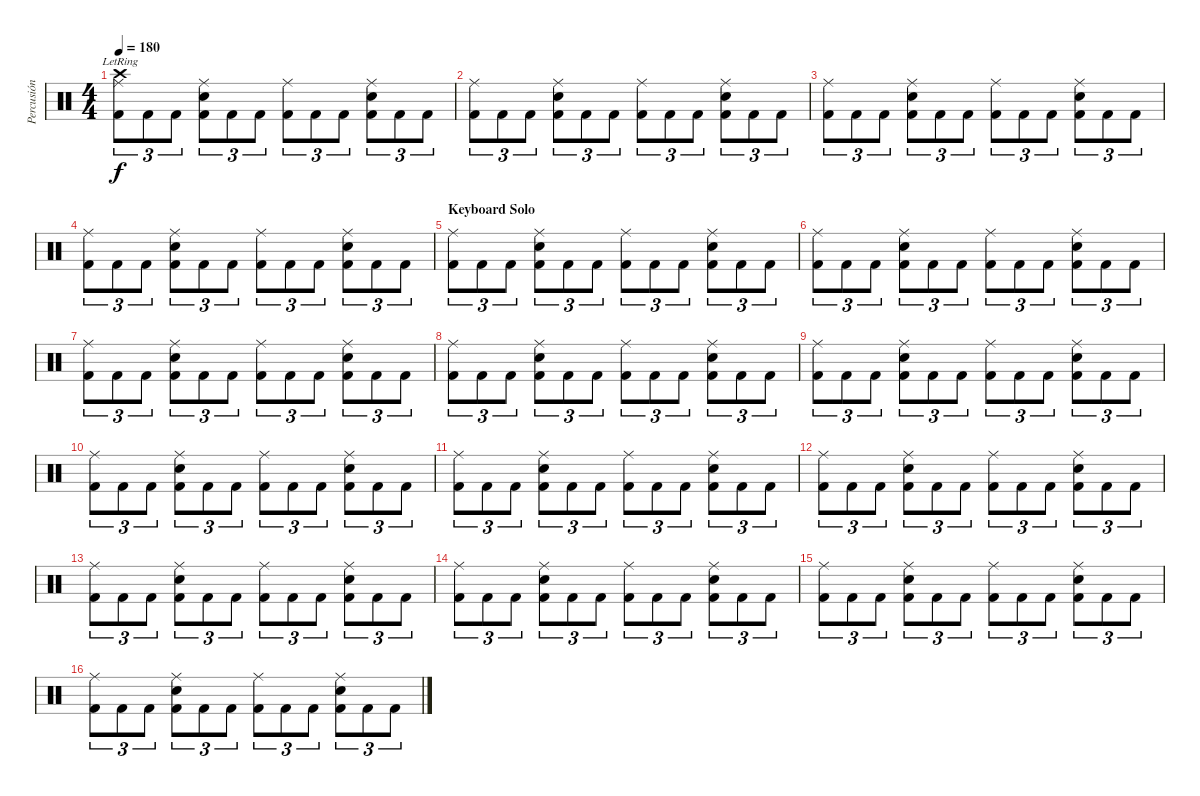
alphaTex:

\track ("Percusión" "Percusión") {instrument percussion}
\staff {score}
\articulation defaults
\ts (4 4)
\tempo 180
\clef neutral
\ks c
("Crash high (hit)"{lr} "Ride (middle)" "Kick (hit) 2").8{tu (3 2) dy f} "Kick (hit) 2".8{tu (3 2)} "Kick (hit) 2".8{tu (3 2)} ("Ride (middle)" "Snare (hit) 2" "Kick (hit) 2").8{tu (3 2)} "Kick (hit) 2".8{tu (3 2)} "Kick (hit) 2".8{tu (3 2)} ("Ride (middle)" "Kick (hit) 2").8{tu (3 2)} "Kick (hit) 2".8{tu (3 2)} "Kick (hit) 2".8{tu (3 2)} ("Ride (middle)" "Snare (hit) 2" "Kick (hit) 2").8{tu (3 2)} "Kick (hit) 2".8{tu (3 2)} "Kick (hit) 2".8{tu (3 2)} |
("Ride (middle)" "Kick (hit) 2").8{tu (3 2)} "Kick (hit) 2".8{tu (3 2)} "Kick (hit) 2".8{tu (3 2)} ("Ride (middle)" "Snare (hit) 2" "Kick (hit) 2").8{tu (3 2)} "Kick (hit) 2".8{tu (3 2)} "Kick (hit) 2".8{tu (3 2)} ("Ride (middle)" "Kick (hit) 2").8{tu (3 2)} "Kick (hit) 2".8{tu (3 2)} "Kick (hit) 2".8{tu (3 2)} ("Ride (middle)" "Snare (hit) 2" "Kick (hit) 2").8{tu (3 2)} "Kick (hit) 2".8{tu (3 2)} "Kick (hit) 2".8{tu (3 2)} |
("Ride (middle)" "Kick (hit) 2").8{tu (3 2)} "Kick (hit) 2".8{tu (3 2)} "Kick (hit) 2".8{tu (3 2)} ("Ride (middle)" "Snare (hit) 2" "Kick (hit) 2").8{tu (3 2)} "Kick (hit) 2".8{tu (3 2)} "Kick (hit) 2".8{tu (3 2)} ("Ride (middle)" "Kick (hit) 2").8{tu (3 2)} "Kick (hit) 2".8{tu (3 2)} "Kick (hit) 2".8{tu (3 2)} ("Ride (middle)" "Snare (hit) 2" "Kick (hit) 2").8{tu (3 2)} "Kick (hit) 2".8{tu (3 2)} "Kick (hit) 2".8{tu (3 2)} |
("Ride (middle)" "Kick (hit) 2").8{tu (3 2)} "Kick (hit) 2".8{tu (3 2)} "Kick (hit) 2".8{tu (3 2)} ("Ride (middle)" "Snare (hit) 2" "Kick (hit) 2").8{tu (3 2)} "Kick (hit) 2".8{tu (3 2)} "Kick (hit) 2".8{tu (3 2)} ("Ride (middle)" "Kick (hit) 2").8{tu (3 2)} "Kick (hit) 2".8{tu (3 2)} "Kick (hit) 2".8{tu (3 2)} ("Ride (middle)" "Snare (hit) 2" "Kick (hit) 2").8{tu (3 2)} "Kick (hit) 2".8{tu (3 2)} "Kick (hit) 2".8{tu (3 2)} |
\section ("" "Keyboard Solo")
("Ride (middle)" "Kick (hit) 2").8{tu (3 2)} "Kick (hit) 2".8{tu (3 2)} "Kick (hit) 2".8{tu (3 2)} ("Ride (middle)" "Snare (hit) 2" "Kick (hit) 2").8{tu (3 2)} "Kick (hit) 2".8{tu (3 2)} "Kick (hit) 2".8{tu (3 2)} ("Ride (middle)" "Kick (hit) 2").8{tu (3 2)} "Kick (hit) 2".8{tu (3 2)} "Kick (hit) 2".8{tu (3 2)} ("Ride (middle)" "Snare (hit) 2" "Kick (hit) 2").8{tu (3 2)} "Kick (hit) 2".8{tu (3 2)} "Kick (hit) 2".8{tu (3 2)} |
("Ride (middle)" "Kick (hit) 2").8{tu (3 2)} "Kick (hit) 2".8{tu (3 2)} "Kick (hit) 2".8{tu (3 2)} ("Ride (middle)" "Snare (hit) 2" "Kick (hit) 2").8{tu (3 2)} "Kick (hit) 2".8{tu (3 2)} "Kick (hit) 2".8{tu (3 2)} ("Ride (middle)" "Kick (hit) 2").8{tu (3 2)} "Kick (hit) 2".8{tu (3 2)} "Kick (hit) 2".8{tu (3 2)} ("Ride (middle)" "Snare (hit) 2" "Kick (hit) 2").8{tu (3 2)} "Kick (hit) 2".8{tu (3 2)} "Kick (hit) 2".8{tu (3 2)} |
("Ride (middle)" "Kick (hit) 2").8{tu (3 2)} "Kick (hit) 2".8{tu (3 2)} "Kick (hit) 2".8{tu (3 2)} ("Ride (middle)" "Snare (hit) 2" "Kick (hit) 2").8{tu (3 2)} "Kick (hit) 2".8{tu (3 2)} "Kick (hit) 2".8{tu (3 2)} ("Ride (middle)" "Kick (hit) 2").8{tu (3 2)} "Kick (hit) 2".8{tu (3 2)} "Kick (hit) 2".8{tu (3 2)} ("Ride (middle)" "Snare (hit) 2" "Kick (hit) 2").8{tu (3 2)} "Kick (hit) 2".8{tu (3 2)} "Kick (hit) 2".8{tu (3 2)} |
("Ride (middle)" "Kick (hit) 2").8{tu (3 2)} "Kick (hit) 2".8{tu (3 2)} "Kick (hit) 2".8{tu (3 2)} ("Ride (middle)" "Snare (hit) 2" "Kick (hit) 2").8{tu (3 2)} "Kick (hit) 2".8{tu (3 2)} "Kick (hit) 2".8{tu (3 2)} ("Ride (middle)" "Kick (hit) 2").8{tu (3 2)} "Kick (hit) 2".8{tu (3 2)} "Kick (hit) 2".8{tu (3 2)} ("Ride (middle)" "Snare (hit) 2" "Kick (hit) 2").8{tu (3 2)} "Kick (hit) 2".8{tu (3 2)} "Kick (hit) 2".8{tu (3 2)} |
("Ride (middle)" "Kick (hit) 2").8{tu (3 2)} "Kick (hit) 2".8{tu (3 2)} "Kick (hit) 2".8{tu (3 2)} ("Ride (middle)" "Snare (hit) 2" "Kick (hit) 2").8{tu (3 2)} "Kick (hit) 2".8{tu (3 2)} "Kick (hit) 2".8{tu (3 2)} ("Ride (middle)" "Kick (hit) 2").8{tu (3 2)} "Kick (hit) 2".8{tu (3 2)} "Kick (hit) 2".8{tu (3 2)} ("Ride (middle)" "Snare (hit) 2" "Kick (hit) 2").8{tu (3 2)} "Kick (hit) 2".8{tu (3 2)} "Kick (hit) 2".8{tu (3 2)} |
("Ride (middle)" "Kick (hit) 2").8{tu (3 2)} "Kick (hit) 2".8{tu (3 2)} "Kick (hit) 2".8{tu (3 2)} ("Ride (middle)" "Snare (hit) 2" "Kick (hit) 2").8{tu (3 2)} "Kick (hit) 2".8{tu (3 2)} "Kick (hit) 2".8{tu (3 2)} ("Ride (middle)" "Kick (hit) 2").8{tu (3 2)} "Kick (hit) 2".8{tu (3 2)} "Kick (hit) 2".8{tu (3 2)} ("Ride (middle)" "Snare (hit) 2" "Kick (hit) 2").8{tu (3 2)} "Kick (hit) 2".8{tu (3 2)} "Kick (hit) 2".8{tu (3 2)} |
("Ride (middle)" "Kick (hit) 2").8{tu (3 2)} "Kick (hit) 2".8{tu (3 2)} "Kick (hit) 2".8{tu (3 2)} ("Ride (middle)" "Snare (hit) 2" "Kick (hit) 2").8{tu (3 2)} "Kick (hit) 2".8{tu (3 2)} "Kick (hit) 2".8{tu (3 2)} ("Ride (middle)" "Kick (hit) 2").8{tu (3 2)} "Kick (hit) 2".8{tu (3 2)} "Kick (hit) 2".8{tu (3 2)} ("Ride (middle)" "Snare (hit) 2" "Kick (hit) 2").8{tu (3 2)} "Kick (hit) 2".8{tu (3 2)} "Kick (hit) 2".8{tu (3 2)} |
("Ride (middle)" "Kick (hit) 2").8{tu (3 2)} "Kick (hit) 2".8{tu (3 2)} "Kick (hit) 2".8{tu (3 2)} ("Ride (middle)" "Snare (hit) 2" "Kick (hit) 2").8{tu (3 2)} "Kick (hit) 2".8{tu (3 2)} "Kick (hit) 2".8{tu (3 2)} ("Ride (middle)" "Kick (hit) 2").8{tu (3 2)} "Kick (hit) 2".8{tu (3 2)} "Kick (hit) 2".8{tu (3 2)} ("Ride (middle)" "Snare (hit) 2" "Kick (hit) 2").8{tu (3 2)} "Kick (hit) 2".8{tu (3 2)} "Kick (hit) 2".8{tu (3 2)} |
("Ride (middle)" "Kick (hit) 2").8{tu (3 2)} "Kick (hit) 2".8{tu (3 2)} "Kick (hit) 2".8{tu (3 2)} ("Ride (middle)" "Snare (hit) 2" "Kick (hit) 2").8{tu (3 2)} "Kick (hit) 2".8{tu (3 2)} "Kick (hit) 2".8{tu (3 2)} ("Ride (middle)" "Kick (hit) 2").8{tu (3 2)} "Kick (hit) 2".8{tu (3 2)} "Kick (hit) 2".8{tu (3 2)} ("Ride (middle)" "Snare (hit) 2" "Kick (hit) 2").8{tu (3 2)} "Kick (hit) 2".8{tu (3 2)} "Kick (hit) 2".8{tu (3 2)} |
("Ride (middle)" "Kick (hit) 2").8{tu (3 2)} "Kick (hit) 2".8{tu (3 2)} "Kick (hit) 2".8{tu (3 2)} ("Ride (middle)" "Snare (hit) 2" "Kick (hit) 2").8{tu (3 2)} "Kick (hit) 2".8{tu (3 2)} "Kick (hit) 2".8{tu (3 2)} ("Ride (middle)" "Kick (hit) 2").8{tu (3 2)} "Kick (hit) 2".8{tu (3 2)} "Kick (hit) 2".8{tu (3 2)} ("Ride (middle)" "Snare (hit) 2" "Kick (hit) 2").8{tu (3 2)} "Kick (hit) 2".8{tu (3 2)} "Kick (hit) 2".8{tu (3 2)} |
("Ride (middle)" "Kick (hit) 2").8{tu (3 2)} "Kick (hit) 2".8{tu (3 2)} "Kick (hit) 2".8{tu (3 2)} ("Ride (middle)" "Snare (hit) 2" "Kick (hit) 2").8{tu (3 2)} "Kick (hit) 2".8{tu (3 2)} "Kick (hit) 2".8{tu (3 2)} ("Ride (middle)" "Kick (hit) 2").8{tu (3 2)} "Kick (hit) 2".8{tu (3 2)} "Kick (hit) 2".8{tu (3 2)} ("Ride (middle)" "Snare (hit) 2" "Kick (hit) 2").8{tu (3 2)} "Kick (hit) 2".8{tu (3 2)} "Kick (hit) 2".8{tu (3 2)} |
("Ride (middle)" "Kick (hit) 2").8{tu (3 2)} "Kick (hit) 2".8{tu (3 2)} "Kick (hit) 2".8{tu (3 2)} ("Ride (middle)" "Snare (hit) 2" "Kick (hit) 2").8{tu (3 2)} "Kick (hit) 2".8{tu (3 2)} "Kick (hit) 2".8{tu (3 2)} ("Ride (middle)" "Kick (hit) 2").8{tu (3 2)} "Kick (hit) 2".8{tu (3 2)} "Kick (hit) 2".8{tu (3 2)} ("Ride (middle)" "Snare (hit) 2" "Kick (hit) 2").8{tu (3 2)} "Kick (hit) 2".8{tu (3 2)} "Kick (hit) 2".8{tu (3 2)}
